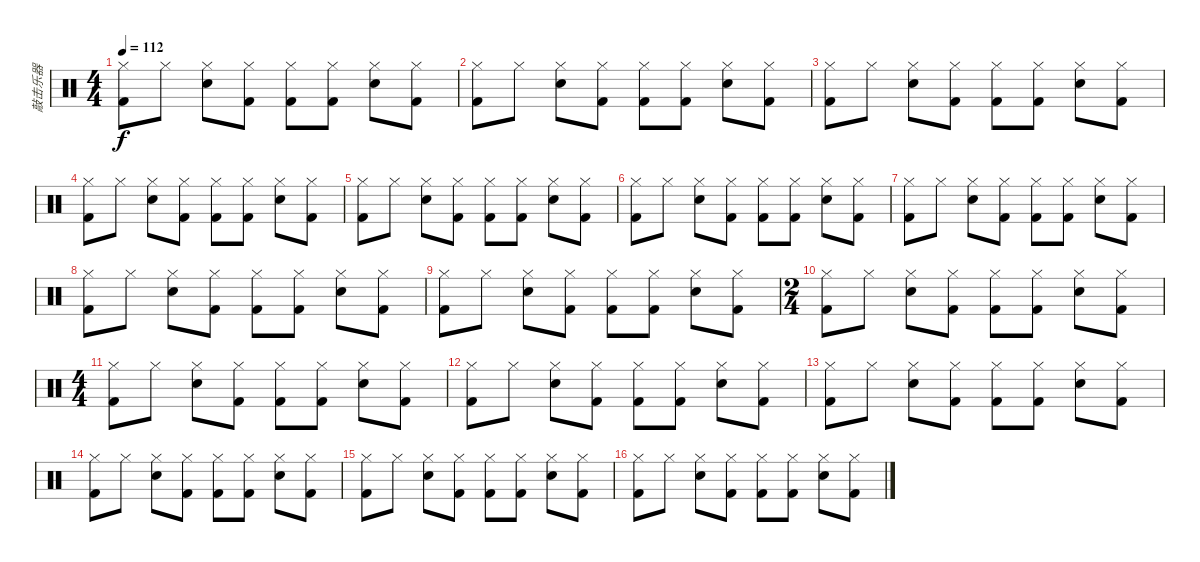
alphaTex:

\track ("敲击乐器" "敲击乐器") {instrument percussion}
\staff {score}
\articulation defaults
\ts (4 4)
\tempo 112
\clef neutral
\ks c
("Hi-Hat (closed)" "Kick (hit) 2").8{dy f} "Hi-Hat (closed)".8 ("Hi-Hat (closed)" "Snare (hit) 2").8 ("Hi-Hat (closed)" "Kick (hit) 2").8 ("Hi-Hat (closed)" "Kick (hit) 2").8 ("Hi-Hat (closed)" "Kick (hit) 2").8 ("Hi-Hat (closed)" "Snare (hit) 2").8 ("Hi-Hat (closed)" "Kick (hit) 2").8 |
("Hi-Hat (closed)" "Kick (hit) 2").8 "Hi-Hat (closed)".8 ("Hi-Hat (closed)" "Snare (hit) 2").8 ("Hi-Hat (closed)" "Kick (hit) 2").8 ("Hi-Hat (closed)" "Kick (hit) 2").8 ("Hi-Hat (closed)" "Kick (hit) 2").8 ("Hi-Hat (closed)" "Snare (hit) 2").8 ("Hi-Hat (closed)" "Kick (hit) 2").8 |
("Hi-Hat (closed)" "Kick (hit) 2").8 "Hi-Hat (closed)".8 ("Hi-Hat (closed)" "Snare (hit) 2").8 ("Hi-Hat (closed)" "Kick (hit) 2").8 ("Hi-Hat (closed)" "Kick (hit) 2").8 ("Hi-Hat (closed)" "Kick (hit) 2").8 ("Hi-Hat (closed)" "Snare (hit) 2").8 ("Hi-Hat (closed)" "Kick (hit) 2").8 |
("Hi-Hat (closed)" "Kick (hit) 2").8 "Hi-Hat (closed)".8 ("Hi-Hat (closed)" "Snare (hit) 2").8 ("Hi-Hat (closed)" "Kick (hit) 2").8 ("Hi-Hat (closed)" "Kick (hit) 2").8 ("Hi-Hat (closed)" "Kick (hit) 2").8 ("Hi-Hat (closed)" "Snare (hit) 2").8 ("Hi-Hat (closed)" "Kick (hit) 2").8 |
("Hi-Hat (closed)" "Kick (hit) 2").8 "Hi-Hat (closed)".8 ("Hi-Hat (closed)" "Snare (hit) 2").8 ("Hi-Hat (closed)" "Kick (hit) 2").8 ("Hi-Hat (closed)" "Kick (hit) 2").8 ("Hi-Hat (closed)" "Kick (hit) 2").8 ("Hi-Hat (closed)" "Snare (hit) 2").8 ("Hi-Hat (closed)" "Kick (hit) 2").8 |
("Hi-Hat (closed)" "Kick (hit) 2").8 "Hi-Hat (closed)".8 ("Hi-Hat (closed)" "Snare (hit) 2").8 ("Hi-Hat (closed)" "Kick (hit) 2").8 ("Hi-Hat (closed)" "Kick (hit) 2").8 ("Hi-Hat (closed)" "Kick (hit) 2").8 ("Hi-Hat (closed)" "Snare (hit) 2").8 ("Hi-Hat (closed)" "Kick (hit) 2").8 |
("Hi-Hat (closed)" "Kick (hit) 2").8 "Hi-Hat (closed)".8 ("Hi-Hat (closed)" "Snare (hit) 2").8 ("Hi-Hat (closed)" "Kick (hit) 2").8 ("Hi-Hat (closed)" "Kick (hit) 2").8 ("Hi-Hat (closed)" "Kick (hit) 2").8 ("Hi-Hat (closed)" "Snare (hit) 2").8 ("Hi-Hat (closed)" "Kick (hit) 2").8 |
("Hi-Hat (closed)" "Kick (hit) 2").8 "Hi-Hat (closed)".8 ("Hi-Hat (closed)" "Snare (hit) 2").8 ("Hi-Hat (closed)" "Kick (hit) 2").8 ("Hi-Hat (closed)" "Kick (hit) 2").8 ("Hi-Hat (closed)" "Kick (hit) 2").8 ("Hi-Hat (closed)" "Snare (hit) 2").8 ("Hi-Hat (closed)" "Kick (hit) 2").8 |
("Hi-Hat (closed)" "Kick (hit) 2").8 "Hi-Hat (closed)".8 ("Hi-Hat (closed)" "Snare (hit) 2").8 ("Hi-Hat (closed)" "Kick (hit) 2").8 ("Hi-Hat (closed)" "Kick (hit) 2").8 ("Hi-Hat (closed)" "Kick (hit) 2").8 ("Hi-Hat (closed)" "Snare (hit) 2").8 ("Hi-Hat (closed)" "Kick (hit) 2").8 |
\ts (2 4)
("Hi-Hat (closed)" "Kick (hit) 2").8 "Hi-Hat (closed)".8 ("Hi-Hat (closed)" "Snare (hit) 2").8 ("Hi-Hat (closed)" "Kick (hit) 2").8 ("Hi-Hat (closed)" "Kick (hit) 2").8 ("Hi-Hat (closed)" "Kick (hit) 2").8 ("Hi-Hat (closed)" "Snare (hit) 2").8 ("Hi-Hat (closed)" "Kick (hit) 2").8 |
\ts (4 4)
("Hi-Hat (closed)" "Kick (hit) 2").8 "Hi-Hat (closed)".8 ("Hi-Hat (closed)" "Snare (hit) 2").8 ("Hi-Hat (closed)" "Kick (hit) 2").8 ("Hi-Hat (closed)" "Kick (hit) 2").8 ("Hi-Hat (closed)" "Kick (hit) 2").8 ("Hi-Hat (closed)" "Snare (hit) 2").8 ("Hi-Hat (closed)" "Kick (hit) 2").8 |
("Hi-Hat (closed)" "Kick (hit) 2").8 "Hi-Hat (closed)".8 ("Hi-Hat (closed)" "Snare (hit) 2").8 ("Hi-Hat (closed)" "Kick (hit) 2").8 ("Hi-Hat (closed)" "Kick (hit) 2").8 ("Hi-Hat (closed)" "Kick (hit) 2").8 ("Hi-Hat (closed)" "Snare (hit) 2").8 ("Hi-Hat (closed)" "Kick (hit) 2").8 |
("Hi-Hat (closed)" "Kick (hit) 2").8 "Hi-Hat (closed)".8 ("Hi-Hat (closed)" "Snare (hit) 2").8 ("Hi-Hat (closed)" "Kick (hit) 2").8 ("Hi-Hat (closed)" "Kick (hit) 2").8 ("Hi-Hat (closed)" "Kick (hit) 2").8 ("Hi-Hat (closed)" "Snare (hit) 2").8 ("Hi-Hat (closed)" "Kick (hit) 2").8 |
("Hi-Hat (closed)" "Kick (hit) 2").8 "Hi-Hat (closed)".8 ("Hi-Hat (closed)" "Snare (hit) 2").8 ("Hi-Hat (closed)" "Kick (hit) 2").8 ("Hi-Hat (closed)" "Kick (hit) 2").8 ("Hi-Hat (closed)" "Kick (hit) 2").8 ("Hi-Hat (closed)" "Snare (hit) 2").8 ("Hi-Hat (closed)" "Kick (hit) 2").8 |
("Hi-Hat (closed)" "Kick (hit) 2").8 "Hi-Hat (closed)".8 ("Hi-Hat (closed)" "Snare (hit) 2").8 ("Hi-Hat (closed)" "Kick (hit) 2").8 ("Hi-Hat (closed)" "Kick (hit) 2").8 ("Hi-Hat (closed)" "Kick (hit) 2").8 ("Hi-Hat (closed)" "Snare (hit) 2").8 ("Hi-Hat (closed)" "Kick (hit) 2").8 |
("Hi-Hat (closed)" "Kick (hit) 2").8 "Hi-Hat (closed)".8 ("Hi-Hat (closed)" "Snare (hit) 2").8 ("Hi-Hat (closed)" "Kick (hit) 2").8 ("Hi-Hat (closed)" "Kick (hit) 2").8 ("Hi-Hat (closed)" "Kick (hit) 2").8 ("Hi-Hat (closed)" "Snare (hit) 2").8 ("Hi-Hat (closed)" "Kick (hit) 2").8
